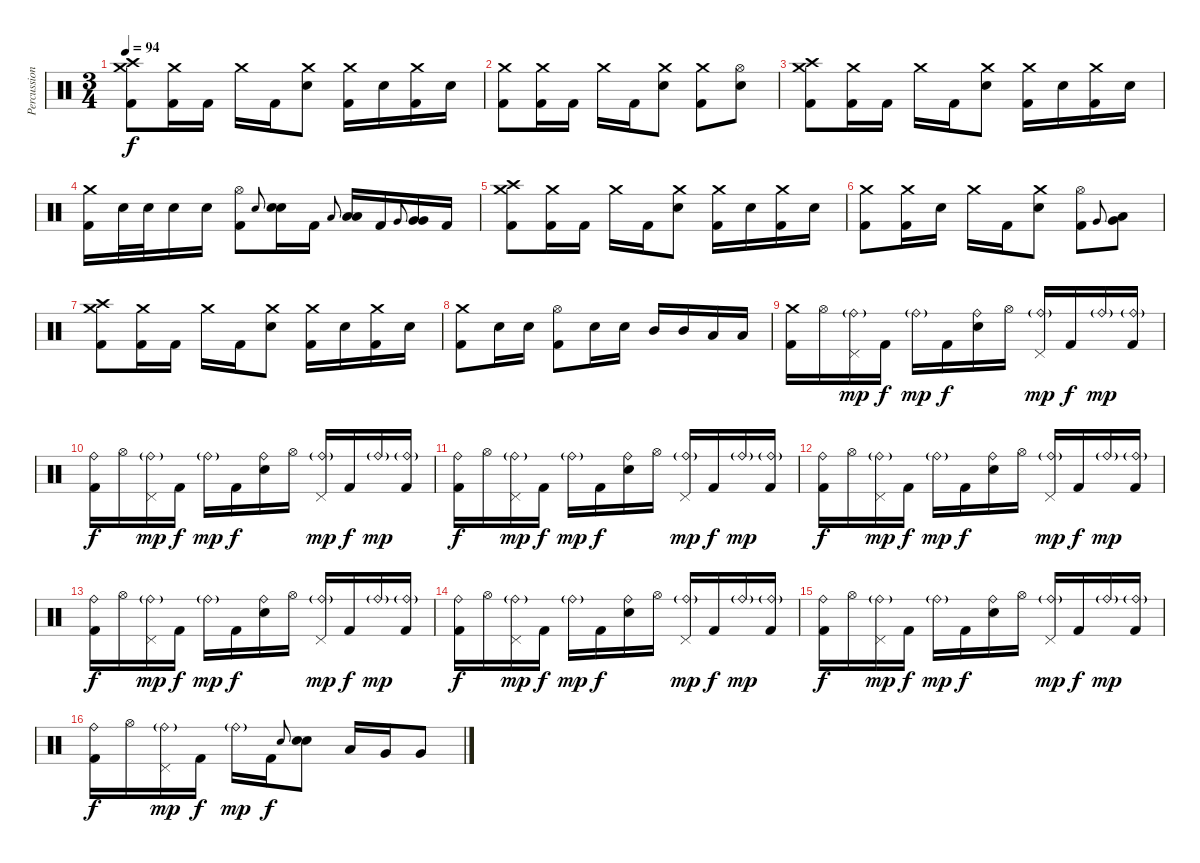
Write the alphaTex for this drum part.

\track ("Percussion" "Percussion") {instrument percussion}
\staff {score}
\articulation defaults
\ts (3 4)
\tempo 94
\clef neutral
\ks c
("Crash high (hit)" "Crash medium (hit)" "Kick (hit) 2").8{dy f} ("Crash medium (hit)" "Kick (hit) 2").16 "Kick (hit) 2".16 "Crash medium (hit)".16 "Kick (hit) 2".16 ("Crash medium (hit)" "Electric Snare (hit)").8 ("Crash medium (hit)" "Kick (hit) 2").16 "Electric Snare (hit)".16 ("Crash medium (hit)" "Kick (hit) 2").16 "Electric Snare (hit)".16 |
("Crash medium (hit)" "Kick (hit) 2").8 ("Crash medium (hit)" "Kick (hit) 2").16 "Kick (hit) 2".16 "Crash medium (hit)".16 "Kick (hit) 2".16 ("Crash medium (hit)" "Electric Snare (hit)").8 ("Crash medium (hit)" "Kick (hit) 2").8 ("Hi-Hat (open)" "Electric Snare (hit)").8 |
("Crash medium (hit)" "Crash high (hit)" "Kick (hit) 2").8 ("Crash medium (hit)" "Kick (hit) 2").16 "Kick (hit) 2".16 "Crash medium (hit)".16 "Kick (hit) 2".16 ("Crash medium (hit)" "Electric Snare (hit)").8 ("Crash medium (hit)" "Kick (hit) 2").16 "Electric Snare (hit)".16 ("Crash medium (hit)" "Kick (hit) 2").16 "Electric Snare (hit)".16 |
("Crash medium (hit)" "Kick (hit) 2").16 "Electric Snare (hit)".32 "Electric Snare (hit)".32 "Electric Snare (hit)".16 "Electric Snare (hit)".16 ("Hi-Hat (open)" "Kick (hit) 2").8 "Electric Snare (hit)".8{gr onbeat} ("Electric Snare (hit)" "Electric Snare (hit)").16 "Kick (hit) 2".16 "Low Tom (hit)".8{gr onbeat} ("Low Tom (hit)" "Low Tom (hit)").16 "Kick (hit) 2".16 "Very Low Tom (hit)".8{gr onbeat} ("Very Low Tom (hit)" "Very Low Tom (hit)").16 "Kick (hit) 2".16 |
("Crash high (hit)" "Crash medium (hit)" "Kick (hit) 2").8 ("Crash medium (hit)" "Kick (hit) 2").16 "Kick (hit) 2".16 "Crash medium (hit)".16 "Kick (hit) 2".16 ("Crash medium (hit)" "Electric Snare (hit)").8 ("Crash medium (hit)" "Kick (hit) 2").16 "Electric Snare (hit)".16 ("Crash medium (hit)" "Kick (hit) 2").16 "Electric Snare (hit)".16 |
("Crash medium (hit)" "Kick (hit) 2").8 ("Crash medium (hit)" "Kick (hit) 2").16 "Electric Snare (hit)".16 "Crash medium (hit)".16 "Kick (hit) 2".16 ("Crash medium (hit)" "Electric Snare (hit)").8 ("Hi-Hat (open)" "Kick (hit) 2").8 "Very Low Tom (hit)".8{gr onbeat} ("Low Tom (hit)" "Very Low Tom (hit)").8 |
("Crash medium (hit)" "Crash high (hit)" "Kick (hit) 2").8 ("Crash medium (hit)" "Kick (hit) 2").16 "Kick (hit) 2".16 "Crash medium (hit)".16 "Kick (hit) 2".16 ("Crash medium (hit)" "Electric Snare (hit)").8 ("Crash medium (hit)" "Kick (hit) 2").16 "Electric Snare (hit)".16 ("Crash medium (hit)" "Kick (hit) 2").16 "Electric Snare (hit)".16 |
("Crash medium (hit)" "Kick (hit) 2").8 "Electric Snare (hit)".16 "Electric Snare (hit)".16 ("Hi-Hat (open)" "Kick (hit) 2").8 "Electric Snare (hit)".16 "Electric Snare (hit)".16 "Mid Tom (hit)".16 "Mid Tom (hit)".16 "Low Tom (hit)".16 "Low Tom (hit)".16 |
("Crash medium (hit)" "Kick (hit) 2").16 "Hi-Hat (open)".16 ("Ride (bell)"{g} "Pedal Hi-Hat (hit)").16{dy mp} "Kick (hit) 2".16{dy f} "Ride (bell)"{g}.16{dy mp} "Kick (hit) 2".16{dy f} ("Ride (bell)" "Electric Snare (hit)").16 "Hi-Hat (open)".16 ("Ride (bell)"{g} "Pedal Hi-Hat (hit)").16{dy mp} "Kick (hit) 2".16{dy f} "Ride (bell)"{g}.16{dy mp} ("Ride (bell)"{g} "Kick (hit) 2").16 |
("Ride (bell)" "Kick (hit) 2").16{dy f} "Hi-Hat (open)".16 ("Ride (bell)"{g} "Pedal Hi-Hat (hit)").16{dy mp} "Kick (hit) 2".16{dy f} "Ride (bell)"{g}.16{dy mp} "Kick (hit) 2".16{dy f} ("Ride (bell)" "Electric Snare (hit)").16 "Hi-Hat (open)".16 ("Ride (bell)"{g} "Pedal Hi-Hat (hit)").16{dy mp} "Kick (hit) 2".16{dy f} "Ride (bell)"{g}.16{dy mp} ("Ride (bell)"{g} "Kick (hit) 2").16 |
("Ride (bell)" "Kick (hit) 2").16{dy f} "Hi-Hat (open)".16 ("Ride (bell)"{g} "Pedal Hi-Hat (hit)").16{dy mp} "Kick (hit) 2".16{dy f} "Ride (bell)"{g}.16{dy mp} "Kick (hit) 2".16{dy f} ("Ride (bell)" "Electric Snare (hit)").16 "Hi-Hat (open)".16 ("Ride (bell)"{g} "Pedal Hi-Hat (hit)").16{dy mp} "Kick (hit) 2".16{dy f} "Ride (bell)"{g}.16{dy mp} ("Ride (bell)"{g} "Kick (hit) 2").16 |
("Ride (bell)" "Kick (hit) 2").16{dy f} "Hi-Hat (open)".16 ("Ride (bell)"{g} "Pedal Hi-Hat (hit)").16{dy mp} "Kick (hit) 2".16{dy f} "Ride (bell)"{g}.16{dy mp} "Kick (hit) 2".16{dy f} ("Ride (bell)" "Electric Snare (hit)").16 "Hi-Hat (open)".16 ("Ride (bell)"{g} "Pedal Hi-Hat (hit)").16{dy mp} "Kick (hit) 2".16{dy f} "Ride (bell)"{g}.16{dy mp} ("Ride (bell)"{g} "Kick (hit) 2").16 |
("Ride (bell)" "Kick (hit) 2").16{dy f} "Hi-Hat (open)".16 ("Ride (bell)"{g} "Pedal Hi-Hat (hit)").16{dy mp} "Kick (hit) 2".16{dy f} "Ride (bell)"{g}.16{dy mp} "Kick (hit) 2".16{dy f} ("Ride (bell)" "Electric Snare (hit)").16 "Hi-Hat (open)".16 ("Ride (bell)"{g} "Pedal Hi-Hat (hit)").16{dy mp} "Kick (hit) 2".16{dy f} "Ride (bell)"{g}.16{dy mp} ("Ride (bell)"{g} "Kick (hit) 2").16 |
("Ride (bell)" "Kick (hit) 2").16{dy f} "Hi-Hat (open)".16 ("Ride (bell)"{g} "Pedal Hi-Hat (hit)").16{dy mp} "Kick (hit) 2".16{dy f} "Ride (bell)"{g}.16{dy mp} "Kick (hit) 2".16{dy f} ("Ride (bell)" "Electric Snare (hit)").16 "Hi-Hat (open)".16 ("Ride (bell)"{g} "Pedal Hi-Hat (hit)").16{dy mp} "Kick (hit) 2".16{dy f} "Ride (bell)"{g}.16{dy mp} ("Ride (bell)"{g} "Kick (hit) 2").16 |
("Ride (bell)" "Kick (hit) 2").16{dy f} "Hi-Hat (open)".16 ("Ride (bell)"{g} "Pedal Hi-Hat (hit)").16{dy mp} "Kick (hit) 2".16{dy f} "Ride (bell)"{g}.16{dy mp} "Kick (hit) 2".16{dy f} ("Ride (bell)" "Electric Snare (hit)").16 "Hi-Hat (open)".16 ("Ride (bell)"{g} "Pedal Hi-Hat (hit)").16{dy mp} "Kick (hit) 2".16{dy f} "Ride (bell)"{g}.16{dy mp} ("Ride (bell)"{g} "Kick (hit) 2").16 |
("Ride (bell)" "Kick (hit) 2").16{dy f} "Hi-Hat (open)".16 ("Ride (bell)"{g} "Pedal Hi-Hat (hit)").16{dy mp} "Kick (hit) 2".16{dy f} "Ride (bell)"{g}.16{dy mp} "Kick (hit) 2".16{dy f} "Electric Snare (hit)".8{gr onbeat} ("Electric Snare (hit)" "Electric Snare (hit)").8 "Low Tom (hit)".16 "Very Low Tom (hit)".16 "Very Low Tom (hit)".8
